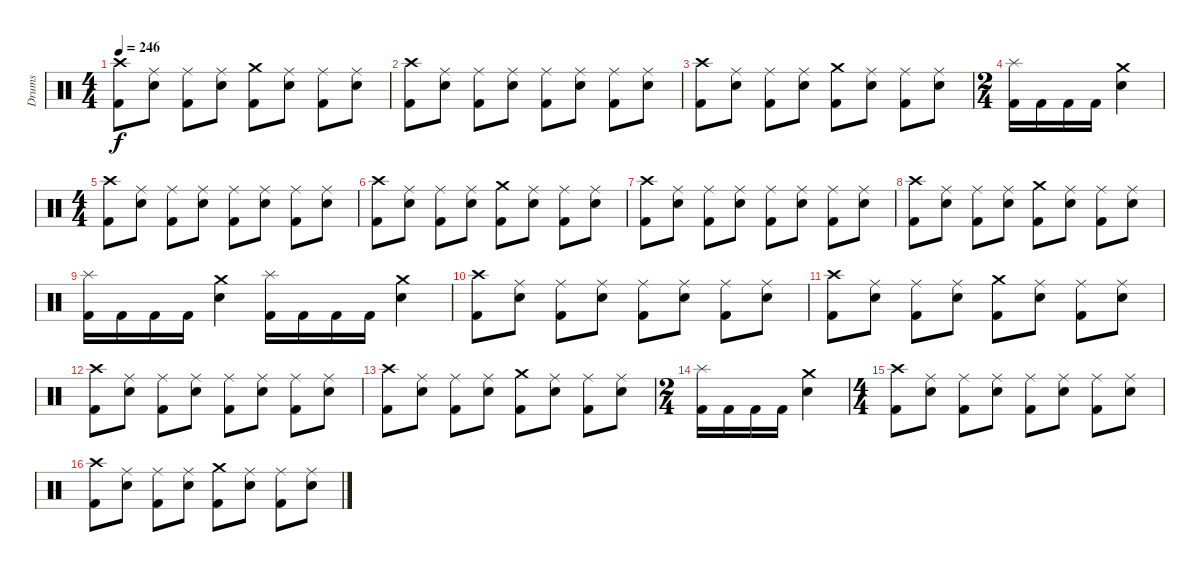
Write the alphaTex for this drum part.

\track ("Drums" "Drums") {instrument percussion}
\staff {score}
\articulation defaults
\ts (4 4)
\tempo 246
\clef neutral
\ks c
("Crash high (hit)" "Kick (hit) 2").8{dy f} ("Ride (middle)" "Snare (hit) 2").8 ("Ride (middle)" "Kick (hit) 2").8 ("Ride (middle)" "Snare (hit) 2").8 ("Crash medium (hit)" "Kick (hit) 2").8 ("Ride (middle)" "Snare (hit) 2").8 ("Ride (middle)" "Kick (hit) 2").8 ("Ride (middle)" "Snare (hit) 2").8 |
("Crash high (hit)" "Kick (hit) 2").8 ("Ride (middle)" "Snare (hit) 2").8 ("Ride (middle)" "Kick (hit) 2").8 ("Ride (middle)" "Snare (hit) 2").8 ("Ride (middle)" "Kick (hit) 2").8 ("Ride (middle)" "Snare (hit) 2").8 ("Ride (middle)" "Kick (hit) 2").8 ("Ride (middle)" "Snare (hit) 2").8 |
("Crash high (hit)" "Kick (hit) 2").8 ("Ride (middle)" "Snare (hit) 2").8 ("Ride (middle)" "Kick (hit) 2").8 ("Ride (middle)" "Snare (hit) 2").8 ("Crash medium (hit)" "Kick (hit) 2").8 ("Ride (middle)" "Snare (hit) 2").8 ("Ride (middle)" "Kick (hit) 2").8 ("Ride (middle)" "Snare (hit) 2").8 |
\ts (2 4)
("Splash (hit)" "Kick (hit) 2").16 "Kick (hit) 2".16 "Kick (hit) 2".16 "Kick (hit) 2".16 ("Crash medium (hit)" "Snare (hit) 2").4 |
\ts (4 4)
("Crash high (hit)" "Kick (hit) 2").8 ("Ride (middle)" "Snare (hit) 2").8 ("Ride (middle)" "Kick (hit) 2").8 ("Ride (middle)" "Snare (hit) 2").8 ("Ride (middle)" "Kick (hit) 2").8 ("Ride (middle)" "Snare (hit) 2").8 ("Ride (middle)" "Kick (hit) 2").8 ("Ride (middle)" "Snare (hit) 2").8 |
("Crash high (hit)" "Kick (hit) 2").8 ("Ride (middle)" "Snare (hit) 2").8 ("Ride (middle)" "Kick (hit) 2").8 ("Ride (middle)" "Snare (hit) 2").8 ("Crash medium (hit)" "Kick (hit) 2").8 ("Ride (middle)" "Snare (hit) 2").8 ("Ride (middle)" "Kick (hit) 2").8 ("Ride (middle)" "Snare (hit) 2").8 |
("Crash high (hit)" "Kick (hit) 2").8 ("Ride (middle)" "Snare (hit) 2").8 ("Ride (middle)" "Kick (hit) 2").8 ("Ride (middle)" "Snare (hit) 2").8 ("Ride (middle)" "Kick (hit) 2").8 ("Ride (middle)" "Snare (hit) 2").8 ("Ride (middle)" "Kick (hit) 2").8 ("Ride (middle)" "Snare (hit) 2").8 |
("Crash high (hit)" "Kick (hit) 2").8 ("Ride (middle)" "Snare (hit) 2").8 ("Ride (middle)" "Kick (hit) 2").8 ("Ride (middle)" "Snare (hit) 2").8 ("Crash medium (hit)" "Kick (hit) 2").8 ("Ride (middle)" "Snare (hit) 2").8 ("Ride (middle)" "Kick (hit) 2").8 ("Ride (middle)" "Snare (hit) 2").8 |
("Splash (hit)" "Kick (hit) 2").16 "Kick (hit) 2".16 "Kick (hit) 2".16 "Kick (hit) 2".16 ("Crash medium (hit)" "Snare (hit) 2").4 ("Splash (hit)" "Kick (hit) 2").16 "Kick (hit) 2".16 "Kick (hit) 2".16 "Kick (hit) 2".16 ("Crash medium (hit)" "Snare (hit) 2").4 |
("Crash high (hit)" "Kick (hit) 2").8 ("Ride (middle)" "Snare (hit) 2").8 ("Ride (middle)" "Kick (hit) 2").8 ("Ride (middle)" "Snare (hit) 2").8 ("Ride (middle)" "Kick (hit) 2").8 ("Ride (middle)" "Snare (hit) 2").8 ("Ride (middle)" "Kick (hit) 2").8 ("Ride (middle)" "Snare (hit) 2").8 |
("Crash high (hit)" "Kick (hit) 2").8 ("Ride (middle)" "Snare (hit) 2").8 ("Ride (middle)" "Kick (hit) 2").8 ("Ride (middle)" "Snare (hit) 2").8 ("Crash medium (hit)" "Kick (hit) 2").8 ("Ride (middle)" "Snare (hit) 2").8 ("Ride (middle)" "Kick (hit) 2").8 ("Ride (middle)" "Snare (hit) 2").8 |
("Crash high (hit)" "Kick (hit) 2").8 ("Ride (middle)" "Snare (hit) 2").8 ("Ride (middle)" "Kick (hit) 2").8 ("Ride (middle)" "Snare (hit) 2").8 ("Ride (middle)" "Kick (hit) 2").8 ("Ride (middle)" "Snare (hit) 2").8 ("Ride (middle)" "Kick (hit) 2").8 ("Ride (middle)" "Snare (hit) 2").8 |
("Crash high (hit)" "Kick (hit) 2").8 ("Ride (middle)" "Snare (hit) 2").8 ("Ride (middle)" "Kick (hit) 2").8 ("Ride (middle)" "Snare (hit) 2").8 ("Crash medium (hit)" "Kick (hit) 2").8 ("Ride (middle)" "Snare (hit) 2").8 ("Ride (middle)" "Kick (hit) 2").8 ("Ride (middle)" "Snare (hit) 2").8 |
\ts (2 4)
("Splash (hit)" "Kick (hit) 2").16 "Kick (hit) 2".16 "Kick (hit) 2".16 "Kick (hit) 2".16 ("Crash medium (hit)" "Snare (hit) 2").4 |
\ts (4 4)
("Crash high (hit)" "Kick (hit) 2").8 ("Ride (middle)" "Snare (hit) 2").8 ("Ride (middle)" "Kick (hit) 2").8 ("Ride (middle)" "Snare (hit) 2").8 ("Ride (middle)" "Kick (hit) 2").8 ("Ride (middle)" "Snare (hit) 2").8 ("Ride (middle)" "Kick (hit) 2").8 ("Ride (middle)" "Snare (hit) 2").8 |
("Crash high (hit)" "Kick (hit) 2").8 ("Ride (middle)" "Snare (hit) 2").8 ("Ride (middle)" "Kick (hit) 2").8 ("Ride (middle)" "Snare (hit) 2").8 ("Crash medium (hit)" "Kick (hit) 2").8 ("Ride (middle)" "Snare (hit) 2").8 ("Ride (middle)" "Kick (hit) 2").8 ("Ride (middle)" "Snare (hit) 2").8
